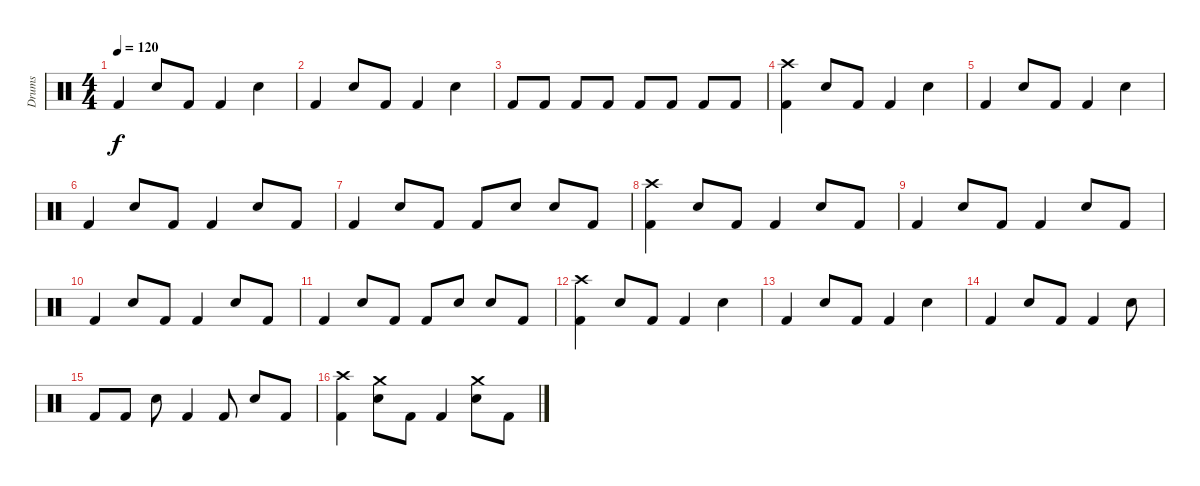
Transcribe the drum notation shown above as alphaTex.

\track ("Drums" "Drums") {instrument percussion}
\staff {score}
\articulation defaults
\ts (4 4)
\tempo 120
\clef neutral
\ks c "Kick (hit) 2".4{dy f} "Electric Snare (hit)".8 "Kick (hit) 2".8 "Kick (hit) 2".4 "Electric Snare (hit)".4
|
"Kick (hit) 2".4 "Electric Snare (hit)".8 "Kick (hit) 2".8 "Kick (hit) 2".4 "Electric Snare (hit)".4 |
"Kick (hit) 2".8 "Kick (hit) 2".8 "Kick (hit) 2".8 "Kick (hit) 2".8 "Kick (hit) 2".8 "Kick (hit) 2".8 "Kick (hit) 2".8 "Kick (hit) 2".8 |
("Crash high (hit)" "Kick (hit) 2").4 "Electric Snare (hit)".8 "Kick (hit) 2".8 "Kick (hit) 2".4 "Electric Snare (hit)".4 |
"Kick (hit) 2".4 "Electric Snare (hit)".8 "Kick (hit) 2".8 "Kick (hit) 2".4 "Electric Snare (hit)".4 |
"Kick (hit) 2".4 "Electric Snare (hit)".8 "Kick (hit) 2".8 "Kick (hit) 2".4 "Electric Snare (hit)".8 "Kick (hit) 2".8 |
"Kick (hit) 2".4 "Electric Snare (hit)".8 "Kick (hit) 2".8 "Kick (hit) 2".8 "Electric Snare (hit)".8 "Electric Snare (hit)".8 "Kick (hit) 2".8 |
("Crash high (hit)" "Kick (hit) 2").4 "Electric Snare (hit)".8 "Kick (hit) 2".8 "Kick (hit) 2".4 "Electric Snare (hit)".8 "Kick (hit) 2".8 |
"Kick (hit) 2".4 "Electric Snare (hit)".8 "Kick (hit) 2".8 "Kick (hit) 2".4 "Electric Snare (hit)".8 "Kick (hit) 2".8 |
"Kick (hit) 2".4 "Electric Snare (hit)".8 "Kick (hit) 2".8 "Kick (hit) 2".4 "Electric Snare (hit)".8 "Kick (hit) 2".8 |
"Kick (hit) 2".4 "Electric Snare (hit)".8 "Kick (hit) 2".8 "Kick (hit) 2".8 "Electric Snare (hit)".8 "Electric Snare (hit)".8 "Kick (hit) 2".8 |
("Crash high (hit)" "Kick (hit) 2").4 "Electric Snare (hit)".8 "Kick (hit) 2".8 "Kick (hit) 2".4 "Electric Snare (hit)".4 |
"Kick (hit) 2".4 "Electric Snare (hit)".8 "Kick (hit) 2".8 "Kick (hit) 2".4 "Electric Snare (hit)".4 |
"Kick (hit) 2".4 "Electric Snare (hit)".8 "Kick (hit) 2".8 "Kick (hit) 2".4 "Electric Snare (hit)".8 |
"Kick (hit) 2".8 "Kick (hit) 2".8 "Electric Snare (hit)".8 "Kick (hit) 2".4 "Kick (hit) 2".8 "Electric Snare (hit)".8 "Kick (hit) 2".8 |
("Crash high (hit)" "Kick (hit) 2").4 ("Crash medium (hit)" "Electric Snare (hit)").8 "Kick (hit) 2".8 "Kick (hit) 2".4 ("Crash medium (hit)" "Electric Snare (hit)").8 "Kick (hit) 2".8
